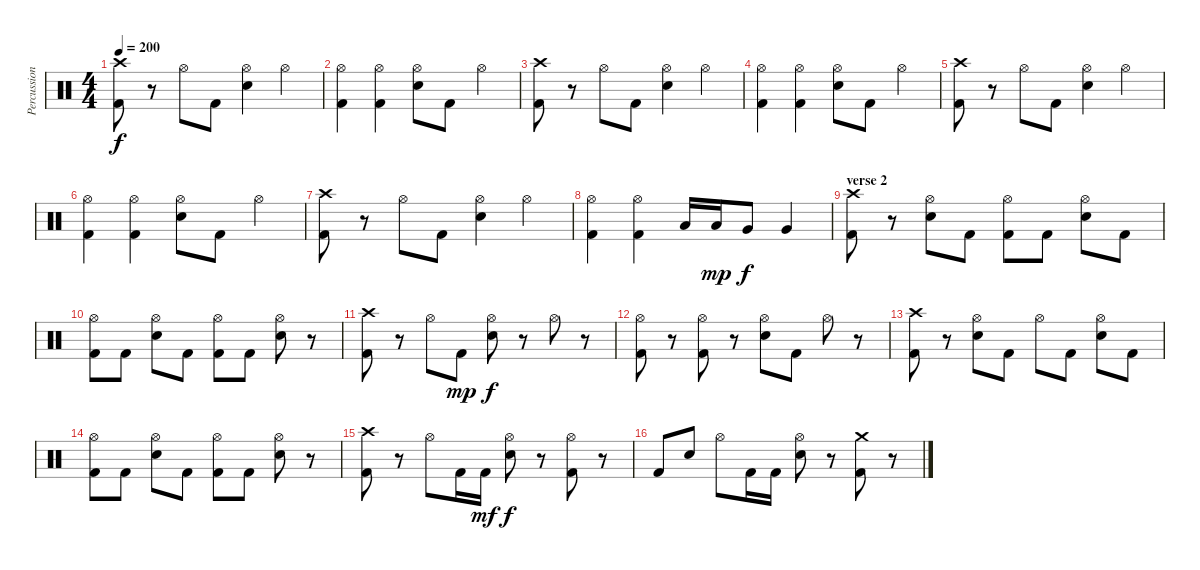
\track ("Percussion" "Percussion") {instrument percussion}
\staff {score}
\articulation defaults
\ts (4 4)
\tempo 200
\clef neutral
\ks c
("Crash high (hit)" "Kick (hit) 2").8{dy f} r.8 "Hi-Hat (open)".8 "Kick (hit) 2".8 ("Hi-Hat (open)" "Electric Snare (hit)").4 "Hi-Hat (open)".4 |
("Hi-Hat (open)" "Kick (hit) 2").4 ("Hi-Hat (open)" "Kick (hit) 2").4 ("Hi-Hat (open)" "Electric Snare (hit)").8 "Kick (hit) 2".8 "Hi-Hat (open)".4 |
("Crash high (hit)" "Kick (hit) 2").8 r.8 "Hi-Hat (open)".8 "Kick (hit) 2".8 ("Hi-Hat (open)" "Electric Snare (hit)").4 "Hi-Hat (open)".4 |
("Hi-Hat (open)" "Kick (hit) 2").4 ("Hi-Hat (open)" "Kick (hit) 2").4 ("Hi-Hat (open)" "Electric Snare (hit)").8 "Kick (hit) 2".8 "Hi-Hat (open)".4 |
("Crash high (hit)" "Kick (hit) 2").8 r.8 "Hi-Hat (open)".8 "Kick (hit) 2".8 ("Hi-Hat (open)" "Electric Snare (hit)").4 "Hi-Hat (open)".4 |
("Hi-Hat (open)" "Kick (hit) 2").4 ("Hi-Hat (open)" "Kick (hit) 2").4 ("Hi-Hat (open)" "Electric Snare (hit)").8 "Kick (hit) 2".8 "Hi-Hat (open)".4 |
("Crash high (hit)" "Kick (hit) 2").8 r.8 "Hi-Hat (open)".8 "Kick (hit) 2".8 ("Hi-Hat (open)" "Electric Snare (hit)").4 "Hi-Hat (open)".4 |
("Hi-Hat (open)" "Kick (hit) 2").4 ("Hi-Hat (open)" "Kick (hit) 2").4 "Low Tom (hit)".16 "Low Tom (hit)".16{dy mp} "Very Low Tom (hit)".8{dy f} "Very Low Tom (hit)".4 |
\section ("" "verse 2")
("Crash high (hit)" "Kick (hit) 2").8 r.8 ("Hi-Hat (open)" "Electric Snare (hit)").8 "Kick (hit) 2".8 ("Hi-Hat (open)" "Kick (hit) 2").8 "Kick (hit) 2".8 ("Hi-Hat (open)" "Electric Snare (hit)").8 "Kick (hit) 2".8 |
("Hi-Hat (open)" "Kick (hit) 2").8 "Kick (hit) 2".8 ("Hi-Hat (open)" "Electric Snare (hit)").8 "Kick (hit) 2".8 ("Hi-Hat (open)" "Kick (hit) 2").8 "Kick (hit) 2".8 ("Hi-Hat (open)" "Electric Snare (hit)").8 r.8 |
("Crash high (hit)" "Kick (hit) 2").8 r.8 "Hi-Hat (open)".8 "Kick (hit) 2".8{dy mp} ("Hi-Hat (open)" "Electric Snare (hit)").8{dy f} r.8 "Hi-Hat (open)".8 r.8 |
("Hi-Hat (open)" "Kick (hit) 2").8 r.8 ("Hi-Hat (open)" "Kick (hit) 2").8 r.8 ("Hi-Hat (open)" "Electric Snare (hit)").8 "Kick (hit) 2".8 "Hi-Hat (open)".8 r.8 |
("Crash high (hit)" "Kick (hit) 2").8 r.8 ("Hi-Hat (open)" "Electric Snare (hit)").8 "Kick (hit) 2".8 "Hi-Hat (open)".8 "Kick (hit) 2".8 ("Hi-Hat (open)" "Electric Snare (hit)").8 "Kick (hit) 2".8 |
("Hi-Hat (open)" "Kick (hit) 2").8 "Kick (hit) 2".8 ("Hi-Hat (open)" "Electric Snare (hit)").8 "Kick (hit) 2".8 ("Hi-Hat (open)" "Kick (hit) 2").8 "Kick (hit) 2".8 ("Hi-Hat (open)" "Electric Snare (hit)").8 r.8 |
("Crash high (hit)" "Kick (hit) 2").8 r.8 "Hi-Hat (open)".8 "Kick (hit) 2".16 "Kick (hit) 2".16{dy mf} ("Hi-Hat (open)" "Electric Snare (hit)").8{dy f} r.8 ("Hi-Hat (open)" "Kick (hit) 2").8 r.8 |
"Kick (hit) 2".8 "Electric Snare (hit)".8 "Hi-Hat (open)".8 "Kick (hit) 2".16 "Kick (hit) 2".16 ("Hi-Hat (open)" "Electric Snare (hit)").8 r.8 ("Crash medium (hit)" "Kick (hit) 2").8 r.8
